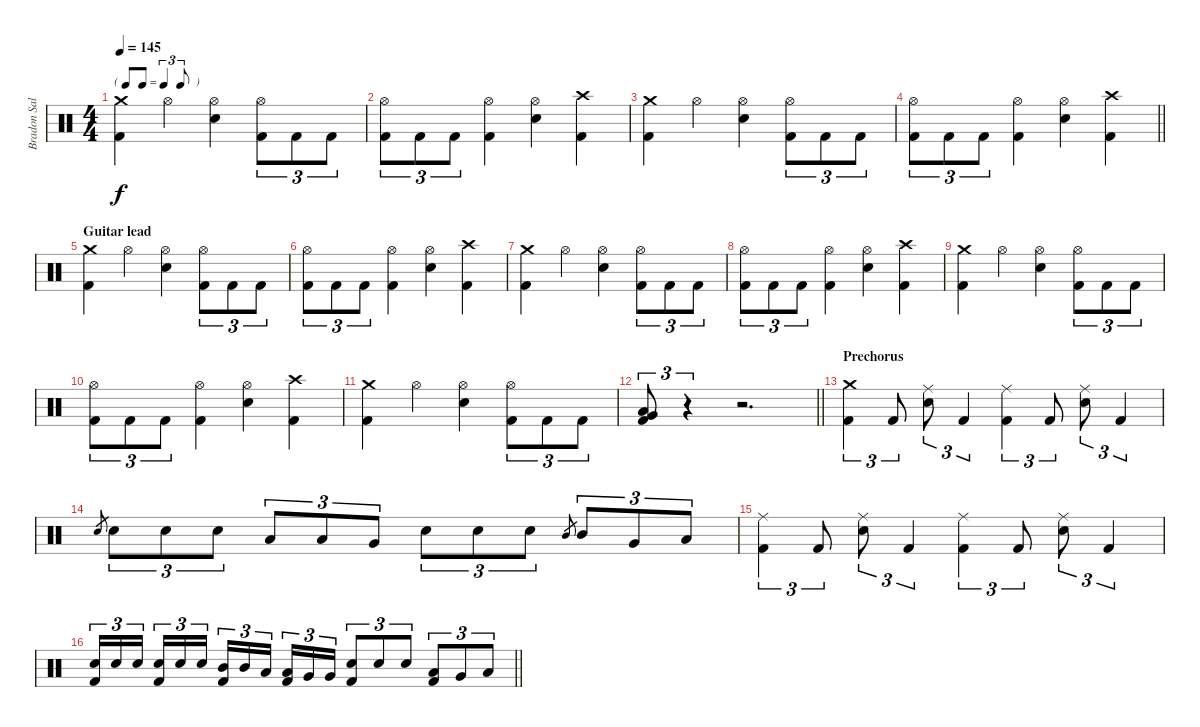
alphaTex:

\track ("Bradon Saller" "Bradon Sal") {instrument percussion}
\staff {score}
\articulation defaults
\ts (4 4)
\tf triplet8th
\tempo 145
\clef neutral
\ks c
("Crash medium (hit)" "Kick (hit) 2").4{dy f} "Hi-Hat (open)".4 ("Hi-Hat (open)" "Electric Snare (hit)").4 ("Hi-Hat (open)" "Kick (hit) 2").8{tu (3 2)} "Kick (hit) 2".8{tu (3 2)} "Kick (hit) 2".8{tu (3 2)} |
("Hi-Hat (open)" "Kick (hit) 2").8{tu (3 2)} "Kick (hit) 2".8{tu (3 2)} "Kick (hit) 2".8{tu (3 2)} ("Hi-Hat (open)" "Kick (hit) 2").4 ("Hi-Hat (open)" "Electric Snare (hit)").4 ("Crash high (hit)" "Kick (hit) 2").4 |
("Crash medium (hit)" "Kick (hit) 2").4 "Hi-Hat (open)".4 ("Hi-Hat (open)" "Electric Snare (hit)").4 ("Hi-Hat (open)" "Kick (hit) 2").8{tu (3 2)} "Kick (hit) 2".8{tu (3 2)} "Kick (hit) 2".8{tu (3 2)} |
\barLineRight lightlight
("Hi-Hat (open)" "Kick (hit) 2").8{tu (3 2)} "Kick (hit) 2".8{tu (3 2)} "Kick (hit) 2".8{tu (3 2)} ("Hi-Hat (open)" "Kick (hit) 2").4 ("Hi-Hat (open)" "Electric Snare (hit)").4 ("Crash high (hit)" "Kick (hit) 2").4 |
\section ("" "Guitar lead")
("Crash medium (hit)" "Kick (hit) 2").4 "Hi-Hat (open)".4 ("Hi-Hat (open)" "Electric Snare (hit)").4 ("Hi-Hat (open)" "Kick (hit) 2").8{tu (3 2)} "Kick (hit) 2".8{tu (3 2)} "Kick (hit) 2".8{tu (3 2)} |
("Hi-Hat (open)" "Kick (hit) 2").8{tu (3 2)} "Kick (hit) 2".8{tu (3 2)} "Kick (hit) 2".8{tu (3 2)} ("Hi-Hat (open)" "Kick (hit) 2").4 ("Hi-Hat (open)" "Electric Snare (hit)").4 ("Crash high (hit)" "Kick (hit) 2").4 |
("Crash medium (hit)" "Kick (hit) 2").4 "Hi-Hat (open)".4 ("Hi-Hat (open)" "Electric Snare (hit)").4 ("Hi-Hat (open)" "Kick (hit) 2").8{tu (3 2)} "Kick (hit) 2".8{tu (3 2)} "Kick (hit) 2".8{tu (3 2)} |
("Hi-Hat (open)" "Kick (hit) 2").8{tu (3 2)} "Kick (hit) 2".8{tu (3 2)} "Kick (hit) 2".8{tu (3 2)} ("Hi-Hat (open)" "Kick (hit) 2").4 ("Hi-Hat (open)" "Electric Snare (hit)").4 ("Crash high (hit)" "Kick (hit) 2").4 |
("Crash medium (hit)" "Kick (hit) 2").4 "Hi-Hat (open)".4 ("Hi-Hat (open)" "Electric Snare (hit)").4 ("Hi-Hat (open)" "Kick (hit) 2").8{tu (3 2)} "Kick (hit) 2".8{tu (3 2)} "Kick (hit) 2".8{tu (3 2)} |
("Hi-Hat (open)" "Kick (hit) 2").8{tu (3 2)} "Kick (hit) 2".8{tu (3 2)} "Kick (hit) 2".8{tu (3 2)} ("Hi-Hat (open)" "Kick (hit) 2").4 ("Hi-Hat (open)" "Electric Snare (hit)").4 ("Crash high (hit)" "Kick (hit) 2").4 |
("Crash medium (hit)" "Kick (hit) 2").4 "Hi-Hat (open)".4 ("Hi-Hat (open)" "Electric Snare (hit)").4 ("Hi-Hat (open)" "Kick (hit) 2").8{tu (3 2)} "Kick (hit) 2".8{tu (3 2)} "Kick (hit) 2".8{tu (3 2)} |
\barLineRight lightlight
("Very Low Tom (hit)" "Low Floor Tom (hit)" "Kick (hit) 2").8{tu (3 2)} r.4{tu (3 2)} r.2{d} |
\section ("" "Prechorus")
("Crash medium (hit)" "Kick (hit) 2").4{tu (3 2)} "Kick (hit) 2".8{tu (3 2)} ("Ride (middle)" "Electric Snare (hit)").8{tu (3 2)} "Kick (hit) 2".4{tu (3 2)} ("Ride (middle)" "Kick (hit) 2").4{tu (3 2)} "Kick (hit) 2".8{tu (3 2)} ("Ride (middle)" "Electric Snare (hit)").8{tu (3 2)} "Kick (hit) 2".4{tu (3 2)} |
"Electric Snare (hit)".8{gr} "Electric Snare (hit)".8{tu (3 2)} "Electric Snare (hit)".8{tu (3 2)} "Electric Snare (hit)".8{tu (3 2)} "Low Tom (hit)".8{tu (3 2)} "Low Tom (hit)".8{tu (3 2)} "Very Low Tom (hit)".8{tu (3 2)} "Electric Snare (hit)".8{tu (3 2)} "Electric Snare (hit)".8{tu (3 2)} "Electric Snare (hit)".8{tu (3 2)} "Mid Tom (hit)".8{gr} "Mid Tom (hit)".8{tu (3 2)} "Very Low Tom (hit)".8{tu (3 2)} "Low Floor Tom (hit)".8{tu (3 2)} |
("Ride (middle)" "Kick (hit) 2").4{tu (3 2)} "Kick (hit) 2".8{tu (3 2)} ("Ride (middle)" "Electric Snare (hit)").8{tu (3 2)} "Kick (hit) 2".4{tu (3 2)} ("Ride (middle)" "Kick (hit) 2").4{tu (3 2)} "Kick (hit) 2".8{tu (3 2)} ("Ride (middle)" "Electric Snare (hit)").8{tu (3 2)} "Kick (hit) 2".4{tu (3 2)} |
\barLineRight lightlight
("Electric Snare (hit)" "Kick (hit) 2").16{tu (3 2)} "Electric Snare (hit)".16{tu (3 2)} "Electric Snare (hit)".16{tu (3 2) beam splitsecondary} ("Electric Snare (hit)" "Kick (hit) 2").16{tu (3 2)} "Electric Snare (hit)".16{tu (3 2)} "Electric Snare (hit)".16{tu (3 2)} ("Mid Tom (hit)" "Kick (hit) 2").16{tu (3 2)} "Mid Tom (hit)".16{tu (3 2)} "Low Tom (hit)".16{tu (3 2) beam splitsecondary} ("Low Tom (hit)" "Kick (hit) 2").16{tu (3 2)} "Very Low Tom (hit)".16{tu (3 2)} "Very Low Tom (hit)".16{tu (3 2)} ("Electric Snare (hit)" "Kick (hit) 2").8{tu (3 2)} "Electric Snare (hit)".8{tu (3 2)} "Electric Snare (hit)".8{tu (3 2)} ("Low Tom (hit)" "Kick (hit) 2").8{tu (3 2)} "Very Low Tom (hit)".8{tu (3 2)} "Low Floor Tom (hit)".8{tu (3 2)}
